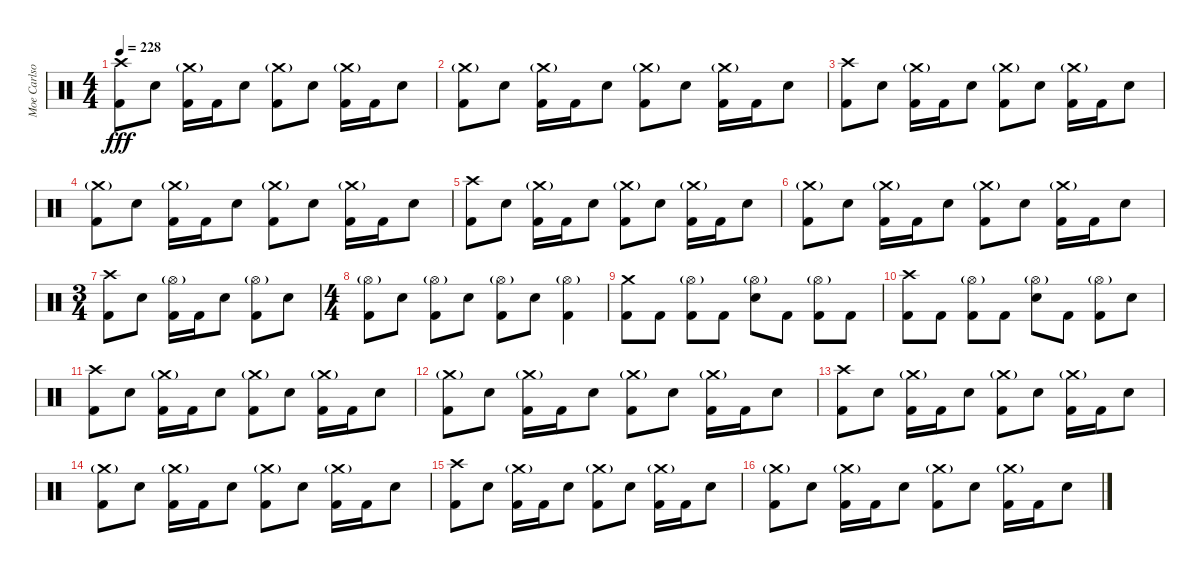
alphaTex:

\track ("Moe Carlson" "Moe Carlso") {instrument percussion}
\staff {score}
\articulation defaults
\ts (4 4)
\tempo 228
\clef neutral
\ks c
("Crash high (hit)" "Kick (hit) 2").8{dy fff} "Electric Snare (hit)".8 ("Crash medium (hit)"{g} "Kick (hit) 2").16 "Kick (hit) 2".16 "Electric Snare (hit)".8 ("Crash medium (hit)"{g} "Kick (hit) 2").8 "Electric Snare (hit)".8 ("Crash medium (hit)"{g} "Kick (hit) 2").16 "Kick (hit) 2".16 "Electric Snare (hit)".8 |
("Crash medium (hit)"{g} "Kick (hit) 2").8 "Electric Snare (hit)".8 ("Crash medium (hit)"{g} "Kick (hit) 2").16 "Kick (hit) 2".16 "Electric Snare (hit)".8 ("Crash medium (hit)"{g} "Kick (hit) 2").8 "Electric Snare (hit)".8 ("Crash medium (hit)"{g} "Kick (hit) 2").16 "Kick (hit) 2".16 "Electric Snare (hit)".8 |
("Crash high (hit)" "Kick (hit) 2").8 "Electric Snare (hit)".8 ("Crash medium (hit)"{g} "Kick (hit) 2").16 "Kick (hit) 2".16 "Electric Snare (hit)".8 ("Crash medium (hit)"{g} "Kick (hit) 2").8 "Electric Snare (hit)".8 ("Crash medium (hit)"{g} "Kick (hit) 2").16 "Kick (hit) 2".16 "Electric Snare (hit)".8 |
("Crash medium (hit)"{g} "Kick (hit) 2").8 "Electric Snare (hit)".8 ("Crash medium (hit)"{g} "Kick (hit) 2").16 "Kick (hit) 2".16 "Electric Snare (hit)".8 ("Crash medium (hit)"{g} "Kick (hit) 2").8 "Electric Snare (hit)".8 ("Crash medium (hit)"{g} "Kick (hit) 2").16 "Kick (hit) 2".16 "Electric Snare (hit)".8 |
("Crash high (hit)" "Kick (hit) 2").8 "Electric Snare (hit)".8 ("Crash medium (hit)"{g} "Kick (hit) 2").16 "Kick (hit) 2".16 "Electric Snare (hit)".8 ("Crash medium (hit)"{g} "Kick (hit) 2").8 "Electric Snare (hit)".8 ("Crash medium (hit)"{g} "Kick (hit) 2").16 "Kick (hit) 2".16 "Electric Snare (hit)".8 |
("Crash medium (hit)"{g} "Kick (hit) 2").8 "Electric Snare (hit)".8 ("Crash medium (hit)"{g} "Kick (hit) 2").16 "Kick (hit) 2".16 "Electric Snare (hit)".8 ("Crash medium (hit)"{g} "Kick (hit) 2").8 "Electric Snare (hit)".8 ("Crash medium (hit)"{g} "Kick (hit) 2").16 "Kick (hit) 2".16 "Electric Snare (hit)".8 |
\ts (3 4)
("Crash high (hit)" "Kick (hit) 2").8 "Electric Snare (hit)".8 ("Hi-Hat (open)"{g} "Kick (hit) 2").16 "Kick (hit) 2".16 "Electric Snare (hit)".8 ("Hi-Hat (open)"{g} "Kick (hit) 2").8 "Electric Snare (hit)".8 |
\ts (4 4)
("Hi-Hat (open)"{g} "Kick (hit) 2").8 "Electric Snare (hit)".8 ("Hi-Hat (open)"{g} "Kick (hit) 2").8 "Electric Snare (hit)".8 ("Hi-Hat (open)"{g} "Kick (hit) 2").8 "Electric Snare (hit)".8 ("Hi-Hat (open)"{g} "Kick (hit) 2").4 |
("Crash medium (hit)" "Kick (hit) 2").8 "Kick (hit) 2".8 ("Hi-Hat (open)"{g} "Kick (hit) 2").8 "Kick (hit) 2".8 ("Hi-Hat (open)"{g} "Electric Snare (hit)").8 "Kick (hit) 2".8 ("Hi-Hat (open)"{g} "Kick (hit) 2").8 "Kick (hit) 2".8 |
("Crash high (hit)" "Kick (hit) 2").8 "Kick (hit) 2".8 ("Hi-Hat (open)"{g} "Kick (hit) 2").8 "Kick (hit) 2".8 ("Hi-Hat (open)"{g} "Electric Snare (hit)").8 "Kick (hit) 2".8 ("Hi-Hat (open)"{g} "Kick (hit) 2").8 "Electric Snare (hit)".8 |
("Crash high (hit)" "Kick (hit) 2").8 "Electric Snare (hit)".8 ("Crash medium (hit)"{g} "Kick (hit) 2").16 "Kick (hit) 2".16 "Electric Snare (hit)".8 ("Crash medium (hit)"{g} "Kick (hit) 2").8 "Electric Snare (hit)".8 ("Crash medium (hit)"{g} "Kick (hit) 2").16 "Kick (hit) 2".16 "Electric Snare (hit)".8 |
("Crash medium (hit)"{g} "Kick (hit) 2").8 "Electric Snare (hit)".8 ("Crash medium (hit)"{g} "Kick (hit) 2").16 "Kick (hit) 2".16 "Electric Snare (hit)".8 ("Crash medium (hit)"{g} "Kick (hit) 2").8 "Electric Snare (hit)".8 ("Crash medium (hit)"{g} "Kick (hit) 2").16 "Kick (hit) 2".16 "Electric Snare (hit)".8 |
("Crash high (hit)" "Kick (hit) 2").8 "Electric Snare (hit)".8 ("Crash medium (hit)"{g} "Kick (hit) 2").16 "Kick (hit) 2".16 "Electric Snare (hit)".8 ("Crash medium (hit)"{g} "Kick (hit) 2").8 "Electric Snare (hit)".8 ("Crash medium (hit)"{g} "Kick (hit) 2").16 "Kick (hit) 2".16 "Electric Snare (hit)".8 |
("Crash medium (hit)"{g} "Kick (hit) 2").8 "Electric Snare (hit)".8 ("Crash medium (hit)"{g} "Kick (hit) 2").16 "Kick (hit) 2".16 "Electric Snare (hit)".8 ("Crash medium (hit)"{g} "Kick (hit) 2").8 "Electric Snare (hit)".8 ("Crash medium (hit)"{g} "Kick (hit) 2").16 "Kick (hit) 2".16 "Electric Snare (hit)".8 |
("Crash high (hit)" "Kick (hit) 2").8 "Electric Snare (hit)".8 ("Crash medium (hit)"{g} "Kick (hit) 2").16 "Kick (hit) 2".16 "Electric Snare (hit)".8 ("Crash medium (hit)"{g} "Kick (hit) 2").8 "Electric Snare (hit)".8 ("Crash medium (hit)"{g} "Kick (hit) 2").16 "Kick (hit) 2".16 "Electric Snare (hit)".8 |
("Crash medium (hit)"{g} "Kick (hit) 2").8 "Electric Snare (hit)".8 ("Crash medium (hit)"{g} "Kick (hit) 2").16 "Kick (hit) 2".16 "Electric Snare (hit)".8 ("Crash medium (hit)"{g} "Kick (hit) 2").8 "Electric Snare (hit)".8 ("Crash medium (hit)"{g} "Kick (hit) 2").16 "Kick (hit) 2".16 "Electric Snare (hit)".8
